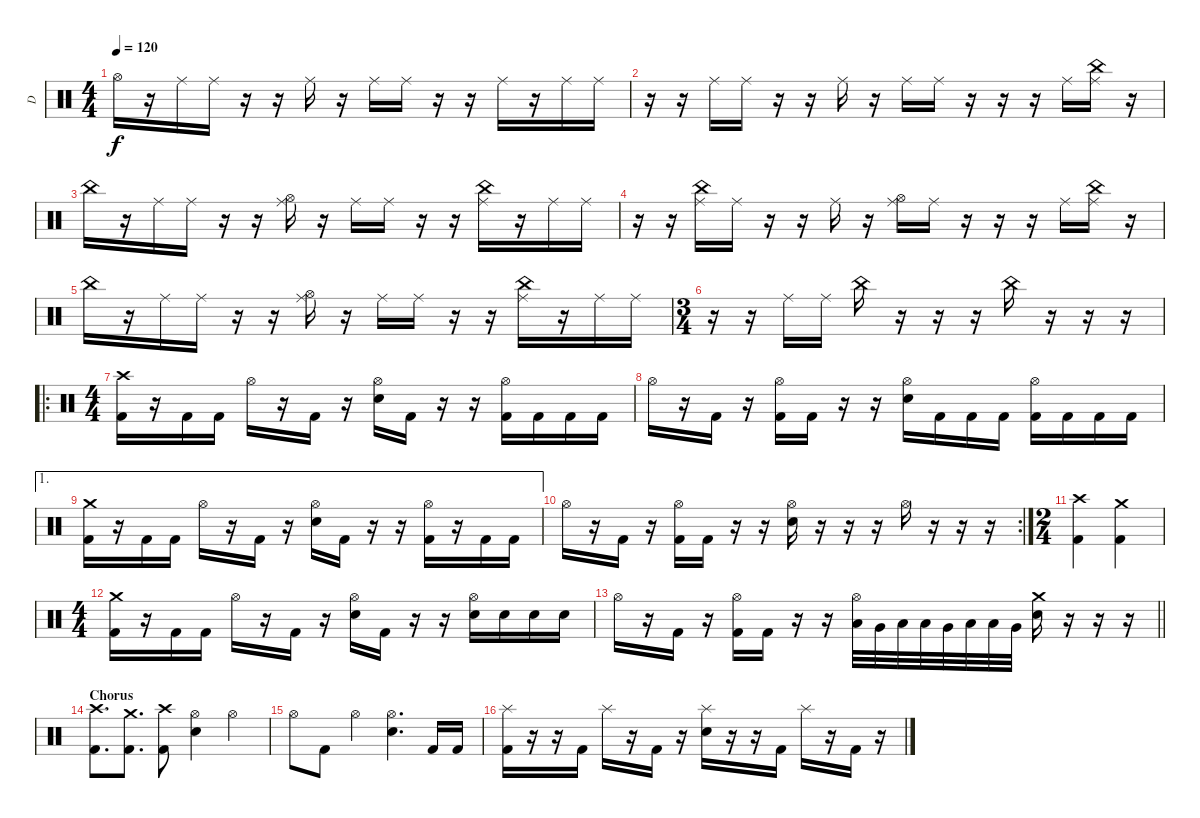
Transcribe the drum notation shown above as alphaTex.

\track ("D" "D") {instrument percussion}
\staff {score}
\articulation defaults
\ts (4 4)
\tempo 120
\clef neutral
\ks c "Hi-Hat (open)".16{dy f}
r.16 "Ride (middle)".16 "Ride (middle)".16 r.16 r.16 "Ride (middle)".16 r.16 "Ride (middle)".16 "Ride (middle)".16 r.16 r.16 "Ride (middle)".16 r.16 "Ride (middle)".16 "Ride (middle)".16 |
r.16 r.16 "Ride (middle)".16 "Ride (middle)".16 r.16 r.16 "Ride (middle)".16 r.16 "Ride (middle)".16 "Ride (middle)".16 r.16 r.16 r.16 "Ride (middle)".16 ("China (hit)" "Ride (middle)").16 r.16 |
"China (hit)".16 r.16 "Ride (middle)".16 "Ride (middle)".16 r.16 r.16 ("Hi-Hat (open)" "Ride (middle)").16 r.16 "Ride (middle)".16 "Ride (middle)".16 r.16 r.16 ("China (hit)" "Ride (middle)").16 r.16 "Ride (middle)".16 "Ride (middle)".16 |
r.16 r.16 ("China (hit)" "Ride (middle)").16 "Ride (middle)".16 r.16 r.16 "Ride (middle)".16 r.16 ("Hi-Hat (open)" "Ride (middle)").16 "Ride (middle)".16 r.16 r.16 r.16 "Ride (middle)".16 ("China (hit)" "Ride (middle)").16 r.16 |
"China (hit)".16 r.16 "Ride (middle)".16 "Ride (middle)".16 r.16 r.16 ("Hi-Hat (open)" "Ride (middle)").16 r.16 "Ride (middle)".16 "Ride (middle)".16 r.16 r.16 ("China (hit)" "Ride (middle)").16 r.16 "Ride (middle)".16 "Ride (middle)".16 |
\ts (3 4)
r.16 r.16 "Ride (middle)".16 "Ride (middle)".16 "China (hit)".16 r.16 r.16 r.16 "China (hit)".16 r.16 r.16 r.16 |
\ro
\ts (4 4)
("Crash high (hit)" "Kick (hit) 2").16 r.16 "Kick (hit) 2".16 "Kick (hit) 2".16 "Hi-Hat (open)".16 r.16 "Kick (hit) 2".16 r.16 ("Electric Snare (hit)" "Hi-Hat (open)").16 "Kick (hit) 2".16 r.16 r.16 ("Kick (hit) 2" "Hi-Hat (open)").16 "Kick (hit) 2".16 "Kick (hit) 2".16 "Kick (hit) 2".16 |
"Hi-Hat (open)".16 r.16 "Kick (hit) 2".16 r.16 ("Kick (hit) 2" "Hi-Hat (open)").16 "Kick (hit) 2".16 r.16 r.16 ("Electric Snare (hit)" "Hi-Hat (open)").16 "Kick (hit) 2".16 "Kick (hit) 2".16 "Kick (hit) 2".16 ("Kick (hit) 2" "Hi-Hat (open)").16 "Kick (hit) 2".16 "Kick (hit) 2".16 "Kick (hit) 2".16 |
\ae 1
("Crash medium (hit)" "Kick (hit) 2").16 r.16 "Kick (hit) 2".16 "Kick (hit) 2".16 "Hi-Hat (open)".16 r.16 "Kick (hit) 2".16 r.16 ("Electric Snare (hit)" "Hi-Hat (open)").16 "Kick (hit) 2".16 r.16 r.16 ("Kick (hit) 2" "Hi-Hat (open)").16 r.16 "Kick (hit) 2".16 "Kick (hit) 2".16 |
\rc 2 "Hi-Hat (open)".16
r.16 "Kick (hit) 2".16 r.16 ("Kick (hit) 2" "Hi-Hat (open)").16 "Kick (hit) 2".16 r.16 r.16 ("Electric Snare (hit)" "Hi-Hat (open)").16 r.16 r.16 r.16 "Hi-Hat (open)".16 r.16 r.16 r.16 |
\ts (2 4)
("Crash high (hit)" "Kick (hit) 2").4 ("Crash medium (hit)" "Kick (hit) 2").4 |
\ts (4 4)
("Crash medium (hit)" "Kick (hit) 2").16 r.16 "Kick (hit) 2".16 "Kick (hit) 2".16 "Hi-Hat (open)".16 r.16 "Kick (hit) 2".16 r.16 ("Electric Snare (hit)" "Hi-Hat (open)").16 "Kick (hit) 2".16 r.16 r.16 ("Electric Snare (hit)" "Hi-Hat (open)").16 "Electric Snare (hit)".16 "Electric Snare (hit)".16 "Electric Snare (hit)".16 |
\barLineRight lightlight "Hi-Hat (open)".16
r.16 "Kick (hit) 2".16 r.16 ("Kick (hit) 2" "Hi-Hat (open)").16 "Kick (hit) 2".16 r.16 r.16 ("Low Tom (hit)" "Hi-Hat (open)").32 "Very Low Tom (hit)".32 "Low Floor Tom (hit)".32 "Low Tom (hit)".32 "Very Low Tom (hit)".32 "Low Floor Tom (hit)".32 "Low Tom (hit)".32 "Very Low Tom (hit)".32 ("Crash medium (hit)" "Electric Snare (hit)").16 r.16 r.16 r.16 |
\section ("" "Chorus")
("Crash high (hit)" "Kick (hit) 2").8{d} ("Crash medium (hit)" "Kick (hit) 2").8{d} ("Crash high (hit)" "Kick (hit) 2").8 ("Electric Snare (hit)" "Hi-Hat (open)").4 "Hi-Hat (open)".4 |
"Hi-Hat (open)".8 "Kick (hit) 2".8 "Hi-Hat (open)".4 ("Electric Snare (hit)" "Hi-Hat (open)").4{d} "Kick (hit) 2".16 "Kick (hit) 2".16 |
("Kick (hit) 2" "Splash (hit)").16 r.16 r.16 "Kick (hit) 2".16 "Splash (hit)".16 r.16 "Kick (hit) 2".16 r.16 ("Electric Snare (hit)" "Splash (hit)").16 r.16 r.16 "Kick (hit) 2".16 "Splash (hit)".16 r.16 "Kick (hit) 2".16 r.16
